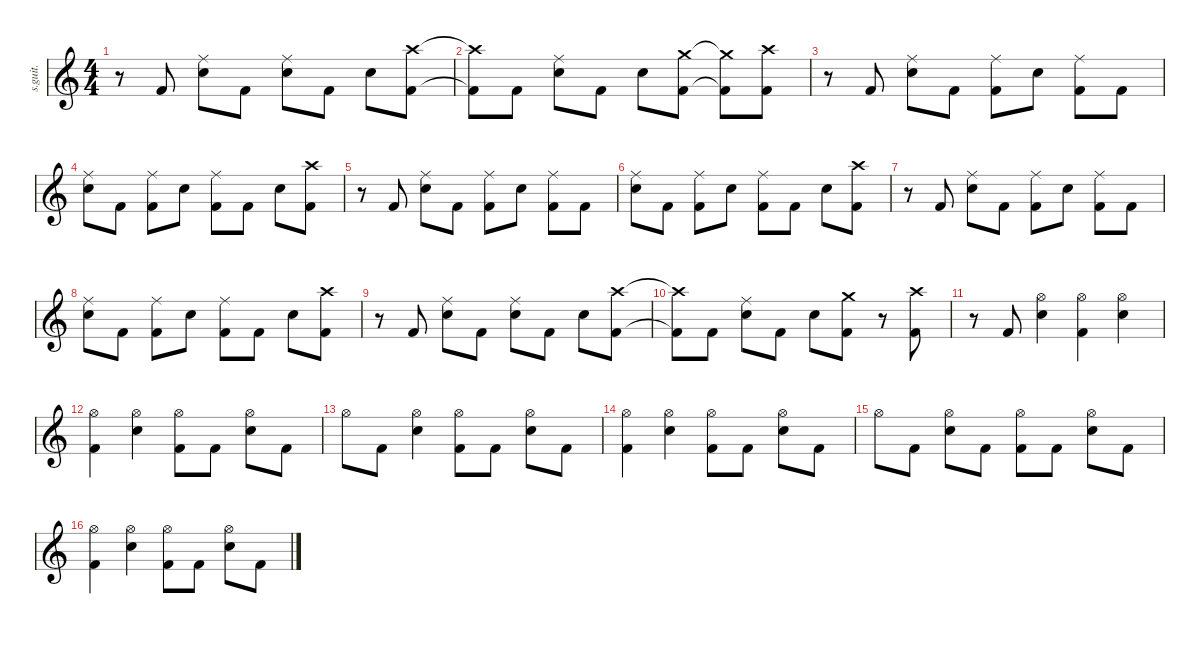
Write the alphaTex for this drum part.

\defaultSystemsLayout 4
\hideDynamics
\bracketExtendMode nobrackets
\track ("Nick Menza (Drums)" "s.guit.") {instrument percussion}
\staff {score}
\articulation defaults
\ts (4 4)
\tempo (196 hide)
\clef g2
\ks c
r.8{dy f} "Kick (hit) 2".8{lyrics (0 "") lyrics (1 "") lyrics (2 "") lyrics (3 "") lyrics (4 "") dy fff} ("Ride (middle)" "Snare (hit) 2").8{lyrics (0 "") lyrics (1 "") lyrics (2 "") lyrics (3 "") lyrics (4 "") dy f} "Kick (hit) 2".8{lyrics (0 "") lyrics (1 "") lyrics (2 "") lyrics (3 "") lyrics (4 "") dy fff} ("Ride (middle)" "Snare (hit) 2").8{lyrics (0 "") lyrics (1 "") lyrics (2 "") lyrics (3 "") lyrics (4 "") dy f} "Kick (hit) 2".8{lyrics (0 "") lyrics (1 "") lyrics (2 "") lyrics (3 "") lyrics (4 "") dy fff} "Snare (hit) 2".8{lyrics (0 "") lyrics (1 "") lyrics (2 "") lyrics (3 "") lyrics (4 "") dy f} ("Crash high (hit)" "Kick (hit) 2").8{lyrics (0 "") lyrics (1 "") lyrics (2 "") lyrics (3 "") lyrics (4 "")} |
("Crash high (hit)"{t} "Kick (hit) 2"{t}).8{lyrics (0 "") lyrics (1 "") lyrics (2 "") lyrics (3 "") lyrics (4 "")} "Kick (hit) 2".8{lyrics (0 "") lyrics (1 "") lyrics (2 "") lyrics (3 "") lyrics (4 "") dy fff} ("Ride (middle)" "Snare (hit) 2").8{lyrics (0 "") lyrics (1 "") lyrics (2 "") lyrics (3 "") lyrics (4 "") dy f} "Kick (hit) 2".8{lyrics (0 "") lyrics (1 "") lyrics (2 "") lyrics (3 "") lyrics (4 "") dy fff} "Snare (hit) 2".8{lyrics (0 "") lyrics (1 "") lyrics (2 "") lyrics (3 "") lyrics (4 "") dy f} ("Crash medium (hit)" "Kick (hit) 2").8{lyrics (0 "") lyrics (1 "") lyrics (2 "") lyrics (3 "") lyrics (4 "")} ("Crash medium (hit)"{t} "Kick (hit) 2"{t}).8{lyrics (0 "") lyrics (1 "") lyrics (2 "") lyrics (3 "") lyrics (4 "")} ("Crash high (hit)" "Kick (hit) 2").8{lyrics (0 "") lyrics (1 "") lyrics (2 "") lyrics (3 "") lyrics (4 "")} |
r.8 "Kick (hit) 2".8{lyrics (0 "") lyrics (1 "") lyrics (2 "") lyrics (3 "") lyrics (4 "") dy fff} ("Ride (middle)" "Snare (hit) 2").8{lyrics (0 "") lyrics (1 "") lyrics (2 "") lyrics (3 "") lyrics (4 "") dy f} "Kick (hit) 2".8{lyrics (0 "") lyrics (1 "") lyrics (2 "") lyrics (3 "") lyrics (4 "") dy fff} ("Ride (middle)" "Kick (hit) 2").8{lyrics (0 "") lyrics (1 "") lyrics (2 "") lyrics (3 "") lyrics (4 "") dy f} "Snare (hit) 2".8{lyrics (0 "") lyrics (1 "") lyrics (2 "") lyrics (3 "") lyrics (4 "")} ("Ride (middle)" "Kick (hit) 2").8{lyrics (0 "") lyrics (1 "") lyrics (2 "") lyrics (3 "") lyrics (4 "")} "Kick (hit) 2".8{lyrics (0 "") lyrics (1 "") lyrics (2 "") lyrics (3 "") lyrics (4 "")} |
("Ride (middle)" "Snare (hit) 2").8{lyrics (0 "") lyrics (1 "") lyrics (2 "") lyrics (3 "") lyrics (4 "")} "Kick (hit) 2".8{lyrics (0 "") lyrics (1 "") lyrics (2 "") lyrics (3 "") lyrics (4 "") dy fff} ("Ride (middle)" "Kick (hit) 2").8{lyrics (0 "") lyrics (1 "") lyrics (2 "") lyrics (3 "") lyrics (4 "") dy f} "Snare (hit) 2".8{lyrics (0 "") lyrics (1 "") lyrics (2 "") lyrics (3 "") lyrics (4 "")} ("Ride (middle)" "Kick (hit) 2").8{lyrics (0 "") lyrics (1 "") lyrics (2 "") lyrics (3 "") lyrics (4 "")} "Kick (hit) 2".8{lyrics (0 "") lyrics (1 "") lyrics (2 "") lyrics (3 "") lyrics (4 "") dy fff} "Snare (hit) 2".8{lyrics (0 "") lyrics (1 "") lyrics (2 "") lyrics (3 "") lyrics (4 "") dy f} ("Crash high (hit)" "Kick (hit) 2").8{lyrics (0 "") lyrics (1 "") lyrics (2 "") lyrics (3 "") lyrics (4 "")} |
r.8 "Kick (hit) 2".8{lyrics (0 "") lyrics (1 "") lyrics (2 "") lyrics (3 "") lyrics (4 "") dy fff} ("Ride (middle)" "Snare (hit) 2").8{lyrics (0 "") lyrics (1 "") lyrics (2 "") lyrics (3 "") lyrics (4 "") dy f} "Kick (hit) 2".8{lyrics (0 "") lyrics (1 "") lyrics (2 "") lyrics (3 "") lyrics (4 "") dy fff} ("Ride (middle)" "Kick (hit) 2").8{lyrics (0 "") lyrics (1 "") lyrics (2 "") lyrics (3 "") lyrics (4 "") dy f} "Snare (hit) 2".8{lyrics (0 "") lyrics (1 "") lyrics (2 "") lyrics (3 "") lyrics (4 "")} ("Ride (middle)" "Kick (hit) 2").8{lyrics (0 "") lyrics (1 "") lyrics (2 "") lyrics (3 "") lyrics (4 "")} "Kick (hit) 2".8{lyrics (0 "") lyrics (1 "") lyrics (2 "") lyrics (3 "") lyrics (4 "")} |
("Ride (middle)" "Snare (hit) 2").8{lyrics (0 "") lyrics (1 "") lyrics (2 "") lyrics (3 "") lyrics (4 "")} "Kick (hit) 2".8{lyrics (0 "") lyrics (1 "") lyrics (2 "") lyrics (3 "") lyrics (4 "") dy fff} ("Ride (middle)" "Kick (hit) 2").8{lyrics (0 "") lyrics (1 "") lyrics (2 "") lyrics (3 "") lyrics (4 "") dy f} "Snare (hit) 2".8{lyrics (0 "") lyrics (1 "") lyrics (2 "") lyrics (3 "") lyrics (4 "")} ("Ride (middle)" "Kick (hit) 2").8{lyrics (0 "") lyrics (1 "") lyrics (2 "") lyrics (3 "") lyrics (4 "")} "Kick (hit) 2".8{lyrics (0 "") lyrics (1 "") lyrics (2 "") lyrics (3 "") lyrics (4 "") dy fff} "Snare (hit) 2".8{lyrics (0 "") lyrics (1 "") lyrics (2 "") lyrics (3 "") lyrics (4 "") dy f} ("Crash high (hit)" "Kick (hit) 2").8{lyrics (0 "") lyrics (1 "") lyrics (2 "") lyrics (3 "") lyrics (4 "")} |
r.8 "Kick (hit) 2".8{lyrics (0 "") lyrics (1 "") lyrics (2 "") lyrics (3 "") lyrics (4 "") dy fff} ("Ride (middle)" "Snare (hit) 2").8{lyrics (0 "") lyrics (1 "") lyrics (2 "") lyrics (3 "") lyrics (4 "") dy f} "Kick (hit) 2".8{lyrics (0 "") lyrics (1 "") lyrics (2 "") lyrics (3 "") lyrics (4 "") dy fff} ("Ride (middle)" "Kick (hit) 2").8{lyrics (0 "") lyrics (1 "") lyrics (2 "") lyrics (3 "") lyrics (4 "") dy f} "Snare (hit) 2".8{lyrics (0 "") lyrics (1 "") lyrics (2 "") lyrics (3 "") lyrics (4 "")} ("Ride (middle)" "Kick (hit) 2").8{lyrics (0 "") lyrics (1 "") lyrics (2 "") lyrics (3 "") lyrics (4 "")} "Kick (hit) 2".8{lyrics (0 "") lyrics (1 "") lyrics (2 "") lyrics (3 "") lyrics (4 "")} |
("Ride (middle)" "Snare (hit) 2").8{lyrics (0 "") lyrics (1 "") lyrics (2 "") lyrics (3 "") lyrics (4 "")} "Kick (hit) 2".8{lyrics (0 "") lyrics (1 "") lyrics (2 "") lyrics (3 "") lyrics (4 "") dy fff} ("Ride (middle)" "Kick (hit) 2").8{lyrics (0 "") lyrics (1 "") lyrics (2 "") lyrics (3 "") lyrics (4 "") dy f} "Snare (hit) 2".8{lyrics (0 "") lyrics (1 "") lyrics (2 "") lyrics (3 "") lyrics (4 "")} ("Ride (middle)" "Kick (hit) 2").8{lyrics (0 "") lyrics (1 "") lyrics (2 "") lyrics (3 "") lyrics (4 "")} "Kick (hit) 2".8{lyrics (0 "") lyrics (1 "") lyrics (2 "") lyrics (3 "") lyrics (4 "") dy fff} "Snare (hit) 2".8{lyrics (0 "") lyrics (1 "") lyrics (2 "") lyrics (3 "") lyrics (4 "") dy f} ("Crash high (hit)" "Kick (hit) 2").8{lyrics (0 "") lyrics (1 "") lyrics (2 "") lyrics (3 "") lyrics (4 "")} |
r.8 "Kick (hit) 2".8{lyrics (0 "") lyrics (1 "") lyrics (2 "") lyrics (3 "") lyrics (4 "") dy fff} ("Ride (middle)" "Snare (hit) 2").8{lyrics (0 "") lyrics (1 "") lyrics (2 "") lyrics (3 "") lyrics (4 "") dy f} "Kick (hit) 2".8{lyrics (0 "") lyrics (1 "") lyrics (2 "") lyrics (3 "") lyrics (4 "") dy fff} ("Ride (middle)" "Snare (hit) 2").8{lyrics (0 "") lyrics (1 "") lyrics (2 "") lyrics (3 "") lyrics (4 "") dy f} "Kick (hit) 2".8{lyrics (0 "") lyrics (1 "") lyrics (2 "") lyrics (3 "") lyrics (4 "") dy fff} "Snare (hit) 2".8{lyrics (0 "") lyrics (1 "") lyrics (2 "") lyrics (3 "") lyrics (4 "") dy f} ("Crash high (hit)" "Kick (hit) 2").8{lyrics (0 "") lyrics (1 "") lyrics (2 "") lyrics (3 "") lyrics (4 "")} |
("Crash high (hit)"{t} "Kick (hit) 2"{t}).8{lyrics (0 "") lyrics (1 "") lyrics (2 "") lyrics (3 "") lyrics (4 "")} "Kick (hit) 2".8{lyrics (0 "") lyrics (1 "") lyrics (2 "") lyrics (3 "") lyrics (4 "") dy fff} ("Ride (middle)" "Snare (hit) 2").8{lyrics (0 "") lyrics (1 "") lyrics (2 "") lyrics (3 "") lyrics (4 "") dy f} "Kick (hit) 2".8{lyrics (0 "") lyrics (1 "") lyrics (2 "") lyrics (3 "") lyrics (4 "") dy fff} "Snare (hit) 2".8{lyrics (0 "") lyrics (1 "") lyrics (2 "") lyrics (3 "") lyrics (4 "") dy f} ("Crash medium (hit)" "Kick (hit) 2").8{lyrics (0 "") lyrics (1 "") lyrics (2 "") lyrics (3 "") lyrics (4 "")} r.8 ("Crash high (hit)" "Kick (hit) 2").8{lyrics (0 "") lyrics (1 "") lyrics (2 "") lyrics (3 "") lyrics (4 "")} |
r.8 "Kick (hit) 2".8{lyrics (0 "") lyrics (1 "") lyrics (2 "") lyrics (3 "") lyrics (4 "") dy fff} ("Hi-Hat (open)" "Snare (hit) 2").4{lyrics (0 "") lyrics (1 "") lyrics (2 "") lyrics (3 "") lyrics (4 "") dy f} ("Hi-Hat (open)" "Kick (hit) 2").4{lyrics (0 "") lyrics (1 "") lyrics (2 "") lyrics (3 "") lyrics (4 "")} ("Hi-Hat (open)" "Snare (hit) 2").4{lyrics (0 "") lyrics (1 "") lyrics (2 "") lyrics (3 "") lyrics (4 "")} |
("Hi-Hat (open)" "Kick (hit) 2").4{lyrics (0 "") lyrics (1 "") lyrics (2 "") lyrics (3 "") lyrics (4 "")} ("Hi-Hat (open)" "Snare (hit) 2").4{lyrics (0 "") lyrics (1 "") lyrics (2 "") lyrics (3 "") lyrics (4 "")} ("Hi-Hat (open)" "Kick (hit) 2").8{lyrics (0 "") lyrics (1 "") lyrics (2 "") lyrics (3 "") lyrics (4 "")} "Kick (hit) 2".8{lyrics (0 "") lyrics (1 "") lyrics (2 "") lyrics (3 "") lyrics (4 "") dy fff} ("Hi-Hat (open)" "Snare (hit) 2").8{lyrics (0 "") lyrics (1 "") lyrics (2 "") lyrics (3 "") lyrics (4 "") dy f} "Kick (hit) 2".8{lyrics (0 "") lyrics (1 "") lyrics (2 "") lyrics (3 "") lyrics (4 "")} |
"Hi-Hat (open)".8{lyrics (0 "") lyrics (1 "") lyrics (2 "") lyrics (3 "") lyrics (4 "")} "Kick (hit) 2".8{lyrics (0 "") lyrics (1 "") lyrics (2 "") lyrics (3 "") lyrics (4 "") dy fff} ("Hi-Hat (open)" "Snare (hit) 2").4{lyrics (0 "") lyrics (1 "") lyrics (2 "") lyrics (3 "") lyrics (4 "") dy f} ("Hi-Hat (open)" "Kick (hit) 2").8{lyrics (0 "") lyrics (1 "") lyrics (2 "") lyrics (3 "") lyrics (4 "")} "Kick (hit) 2".8{lyrics (0 "") lyrics (1 "") lyrics (2 "") lyrics (3 "") lyrics (4 "") dy fff} ("Hi-Hat (open)" "Snare (hit) 2").8{lyrics (0 "") lyrics (1 "") lyrics (2 "") lyrics (3 "") lyrics (4 "") dy f} "Kick (hit) 2".8{lyrics (0 "") lyrics (1 "") lyrics (2 "") lyrics (3 "") lyrics (4 "")} |
("Hi-Hat (open)" "Kick (hit) 2").4{lyrics (0 "") lyrics (1 "") lyrics (2 "") lyrics (3 "") lyrics (4 "")} ("Hi-Hat (open)" "Snare (hit) 2").4{lyrics (0 "") lyrics (1 "") lyrics (2 "") lyrics (3 "") lyrics (4 "")} ("Hi-Hat (open)" "Kick (hit) 2").8{lyrics (0 "") lyrics (1 "") lyrics (2 "") lyrics (3 "") lyrics (4 "")} "Kick (hit) 2".8{lyrics (0 "") lyrics (1 "") lyrics (2 "") lyrics (3 "") lyrics (4 "") dy fff} ("Hi-Hat (open)" "Snare (hit) 2").8{lyrics (0 "") lyrics (1 "") lyrics (2 "") lyrics (3 "") lyrics (4 "") dy f} "Kick (hit) 2".8{lyrics (0 "") lyrics (1 "") lyrics (2 "") lyrics (3 "") lyrics (4 "")} |
"Hi-Hat (open)".8{lyrics (0 "") lyrics (1 "") lyrics (2 "") lyrics (3 "") lyrics (4 "")} "Kick (hit) 2".8{lyrics (0 "") lyrics (1 "") lyrics (2 "") lyrics (3 "") lyrics (4 "") dy fff} ("Hi-Hat (open)" "Snare (hit) 2").8{lyrics (0 "") lyrics (1 "") lyrics (2 "") lyrics (3 "") lyrics (4 "") dy f} "Kick (hit) 2".8{lyrics (0 "") lyrics (1 "") lyrics (2 "") lyrics (3 "") lyrics (4 "") dy fff} ("Hi-Hat (open)" "Kick (hit) 2").8{lyrics (0 "") lyrics (1 "") lyrics (2 "") lyrics (3 "") lyrics (4 "") dy f} "Kick (hit) 2".8{lyrics (0 "") lyrics (1 "") lyrics (2 "") lyrics (3 "") lyrics (4 "") dy fff} ("Hi-Hat (open)" "Snare (hit) 2").8{lyrics (0 "") lyrics (1 "") lyrics (2 "") lyrics (3 "") lyrics (4 "") dy f} "Kick (hit) 2".8{lyrics (0 "") lyrics (1 "") lyrics (2 "") lyrics (3 "") lyrics (4 "")} |
("Hi-Hat (open)" "Kick (hit) 2").4{lyrics (0 "") lyrics (1 "") lyrics (2 "") lyrics (3 "") lyrics (4 "")} ("Hi-Hat (open)" "Snare (hit) 2").4{lyrics (0 "") lyrics (1 "") lyrics (2 "") lyrics (3 "") lyrics (4 "")} ("Hi-Hat (open)" "Kick (hit) 2").8{lyrics (0 "") lyrics (1 "") lyrics (2 "") lyrics (3 "") lyrics (4 "")} "Kick (hit) 2".8{lyrics (0 "") lyrics (1 "") lyrics (2 "") lyrics (3 "") lyrics (4 "") dy fff} ("Hi-Hat (open)" "Snare (hit) 2").8{lyrics (0 "") lyrics (1 "") lyrics (2 "") lyrics (3 "") lyrics (4 "") dy f} "Kick (hit) 2".8{lyrics (0 "") lyrics (1 "") lyrics (2 "") lyrics (3 "") lyrics (4 "")}
